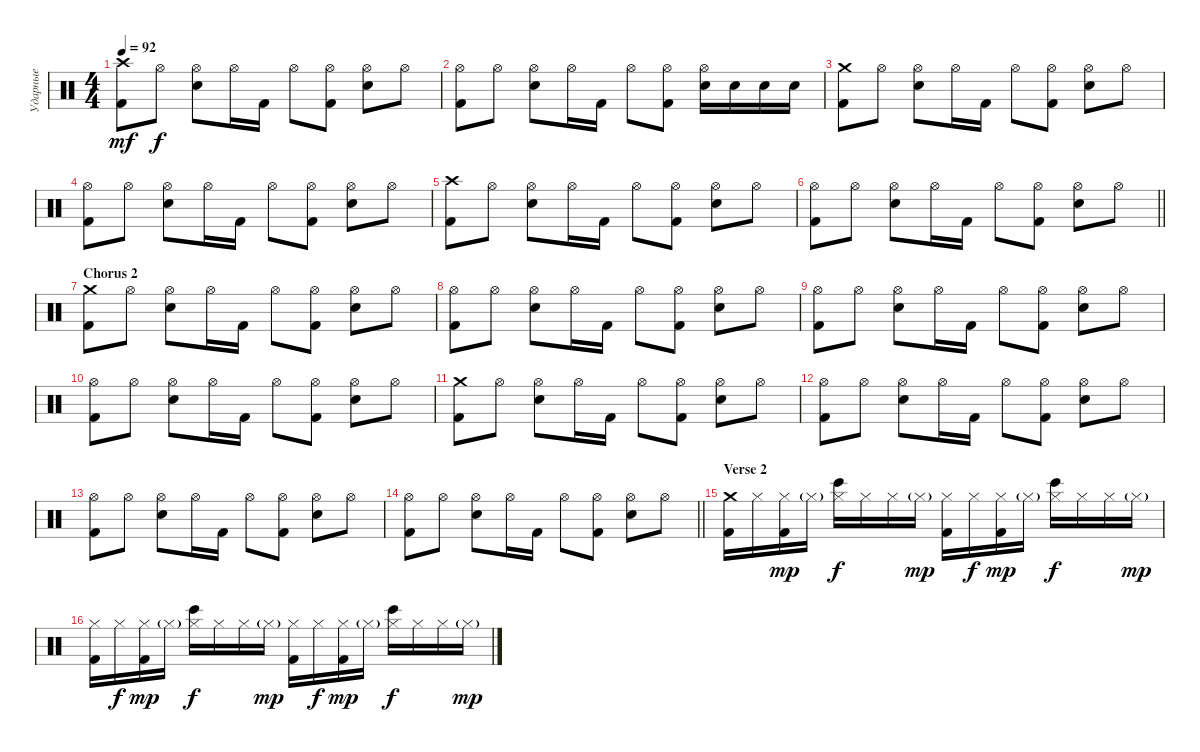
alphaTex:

\track ("Ударные" "Ударные") {instrument percussion}
\staff {score}
\articulation defaults
\ts (4 4)
\tempo 92
\clef neutral
\ks c
("Crash high (hit)" "Kick (hit) 2").8{dy mf} "Hi-Hat (open)".8{dy f} ("Hi-Hat (open)" "Electric Snare (hit)").8 "Hi-Hat (open)".16 "Kick (hit) 2".16 "Hi-Hat (open)".8 ("Hi-Hat (open)" "Kick (hit) 2").8 ("Hi-Hat (open)" "Electric Snare (hit)").8 "Hi-Hat (open)".8 |
("Hi-Hat (open)" "Kick (hit) 2").8 "Hi-Hat (open)".8 ("Hi-Hat (open)" "Electric Snare (hit)").8 "Hi-Hat (open)".16 "Kick (hit) 2".16 "Hi-Hat (open)".8 ("Hi-Hat (open)" "Kick (hit) 2").8 ("Hi-Hat (open)" "Electric Snare (hit)").16 "Electric Snare (hit)".16 "Electric Snare (hit)".16 "Electric Snare (hit)".16 |
("Crash medium (hit)" "Kick (hit) 2").8 "Hi-Hat (open)".8 ("Hi-Hat (open)" "Electric Snare (hit)").8 "Hi-Hat (open)".16 "Kick (hit) 2".16 "Hi-Hat (open)".8 ("Hi-Hat (open)" "Kick (hit) 2").8 ("Hi-Hat (open)" "Electric Snare (hit)").8 "Hi-Hat (open)".8 |
("Hi-Hat (open)" "Kick (hit) 2").8 "Hi-Hat (open)".8 ("Hi-Hat (open)" "Electric Snare (hit)").8 "Hi-Hat (open)".16 "Kick (hit) 2".16 "Hi-Hat (open)".8 ("Hi-Hat (open)" "Kick (hit) 2").8 ("Hi-Hat (open)" "Electric Snare (hit)").8 "Hi-Hat (open)".8 |
("Crash high (hit)" "Kick (hit) 2").8 "Hi-Hat (open)".8 ("Hi-Hat (open)" "Electric Snare (hit)").8 "Hi-Hat (open)".16 "Kick (hit) 2".16 "Hi-Hat (open)".8 ("Hi-Hat (open)" "Kick (hit) 2").8 ("Hi-Hat (open)" "Electric Snare (hit)").8 "Hi-Hat (open)".8 |
\barLineRight lightlight
("Hi-Hat (open)" "Kick (hit) 2").8 "Hi-Hat (open)".8 ("Hi-Hat (open)" "Electric Snare (hit)").8 "Hi-Hat (open)".16 "Kick (hit) 2".16 "Hi-Hat (open)".8 ("Hi-Hat (open)" "Kick (hit) 2").8 ("Hi-Hat (open)" "Electric Snare (hit)").8 "Hi-Hat (open)".8 |
\section ("" "Chorus 2")
("Crash medium (hit)" "Kick (hit) 2").8 "Hi-Hat (open)".8 ("Hi-Hat (open)" "Electric Snare (hit)").8 "Hi-Hat (open)".16 "Kick (hit) 2".16 "Hi-Hat (open)".8 ("Hi-Hat (open)" "Kick (hit) 2").8 ("Hi-Hat (open)" "Electric Snare (hit)").8 "Hi-Hat (open)".8 |
("Hi-Hat (open)" "Kick (hit) 2").8 "Hi-Hat (open)".8 ("Hi-Hat (open)" "Electric Snare (hit)").8 "Hi-Hat (open)".16 "Kick (hit) 2".16 "Hi-Hat (open)".8 ("Hi-Hat (open)" "Kick (hit) 2").8 ("Hi-Hat (open)" "Electric Snare (hit)").8 "Hi-Hat (open)".8 |
("Hi-Hat (open)" "Kick (hit) 2").8 "Hi-Hat (open)".8 ("Hi-Hat (open)" "Electric Snare (hit)").8 "Hi-Hat (open)".16 "Kick (hit) 2".16 "Hi-Hat (open)".8 ("Hi-Hat (open)" "Kick (hit) 2").8 ("Hi-Hat (open)" "Electric Snare (hit)").8 "Hi-Hat (open)".8 |
("Hi-Hat (open)" "Kick (hit) 2").8 "Hi-Hat (open)".8 ("Hi-Hat (open)" "Electric Snare (hit)").8 "Hi-Hat (open)".16 "Kick (hit) 2".16 "Hi-Hat (open)".8 ("Hi-Hat (open)" "Kick (hit) 2").8 ("Hi-Hat (open)" "Electric Snare (hit)").8 "Hi-Hat (open)".8 |
("Crash medium (hit)" "Kick (hit) 2").8 "Hi-Hat (open)".8 ("Hi-Hat (open)" "Electric Snare (hit)").8 "Hi-Hat (open)".16 "Kick (hit) 2".16 "Hi-Hat (open)".8 ("Hi-Hat (open)" "Kick (hit) 2").8 ("Hi-Hat (open)" "Electric Snare (hit)").8 "Hi-Hat (open)".8 |
("Hi-Hat (open)" "Kick (hit) 2").8 "Hi-Hat (open)".8 ("Hi-Hat (open)" "Electric Snare (hit)").8 "Hi-Hat (open)".16 "Kick (hit) 2".16 "Hi-Hat (open)".8 ("Hi-Hat (open)" "Kick (hit) 2").8 ("Hi-Hat (open)" "Electric Snare (hit)").8 "Hi-Hat (open)".8 |
("Hi-Hat (open)" "Kick (hit) 2").8 "Hi-Hat (open)".8 ("Hi-Hat (open)" "Electric Snare (hit)").8 "Hi-Hat (open)".16 "Kick (hit) 2".16 "Hi-Hat (open)".8 ("Hi-Hat (open)" "Kick (hit) 2").8 ("Hi-Hat (open)" "Electric Snare (hit)").8 "Hi-Hat (open)".8 |
\barLineRight lightlight
("Hi-Hat (open)" "Kick (hit) 2").8 "Hi-Hat (open)".8 ("Hi-Hat (open)" "Electric Snare (hit)").8 "Hi-Hat (open)".16 "Kick (hit) 2".16 "Hi-Hat (open)".8 ("Hi-Hat (open)" "Kick (hit) 2").8 ("Hi-Hat (open)" "Electric Snare (hit)").8 "Hi-Hat (open)".8 |
\section ("" "Verse 2")
("Crash medium (hit)" "Kick (hit) 2").16 "Hi-Hat (closed)".16 ("Hi-Hat (closed)" "Kick (hit) 2").16{dy mp} "Hi-Hat (closed)"{g}.16 ("Hi-Hat (closed)" "Bongo High (hit)").16{dy f} "Hi-Hat (closed)".16 "Hi-Hat (closed)".16 "Hi-Hat (closed)"{g}.16{dy mp} ("Hi-Hat (closed)" "Kick (hit) 2").16 "Hi-Hat (closed)".16{dy f} ("Hi-Hat (closed)" "Kick (hit) 2").16{dy mp} "Hi-Hat (closed)"{g}.16 ("Hi-Hat (closed)" "Bongo High (hit)").16{dy f} "Hi-Hat (closed)".16 "Hi-Hat (closed)".16 "Hi-Hat (closed)"{g}.16{dy mp} |
("Hi-Hat (closed)" "Kick (hit) 2").16 "Hi-Hat (closed)".16{dy f} ("Hi-Hat (closed)" "Kick (hit) 2").16{dy mp} "Hi-Hat (closed)"{g}.16 ("Hi-Hat (closed)" "Bongo High (hit)").16{dy f} "Hi-Hat (closed)".16 "Hi-Hat (closed)".16 "Hi-Hat (closed)"{g}.16{dy mp} ("Hi-Hat (closed)" "Kick (hit) 2").16 "Hi-Hat (closed)".16{dy f} ("Hi-Hat (closed)" "Kick (hit) 2").16{dy mp} "Hi-Hat (closed)"{g}.16 ("Hi-Hat (closed)" "Bongo High (hit)").16{dy f} "Hi-Hat (closed)".16 "Hi-Hat (closed)".16 "Hi-Hat (closed)"{g}.16{dy mp}
